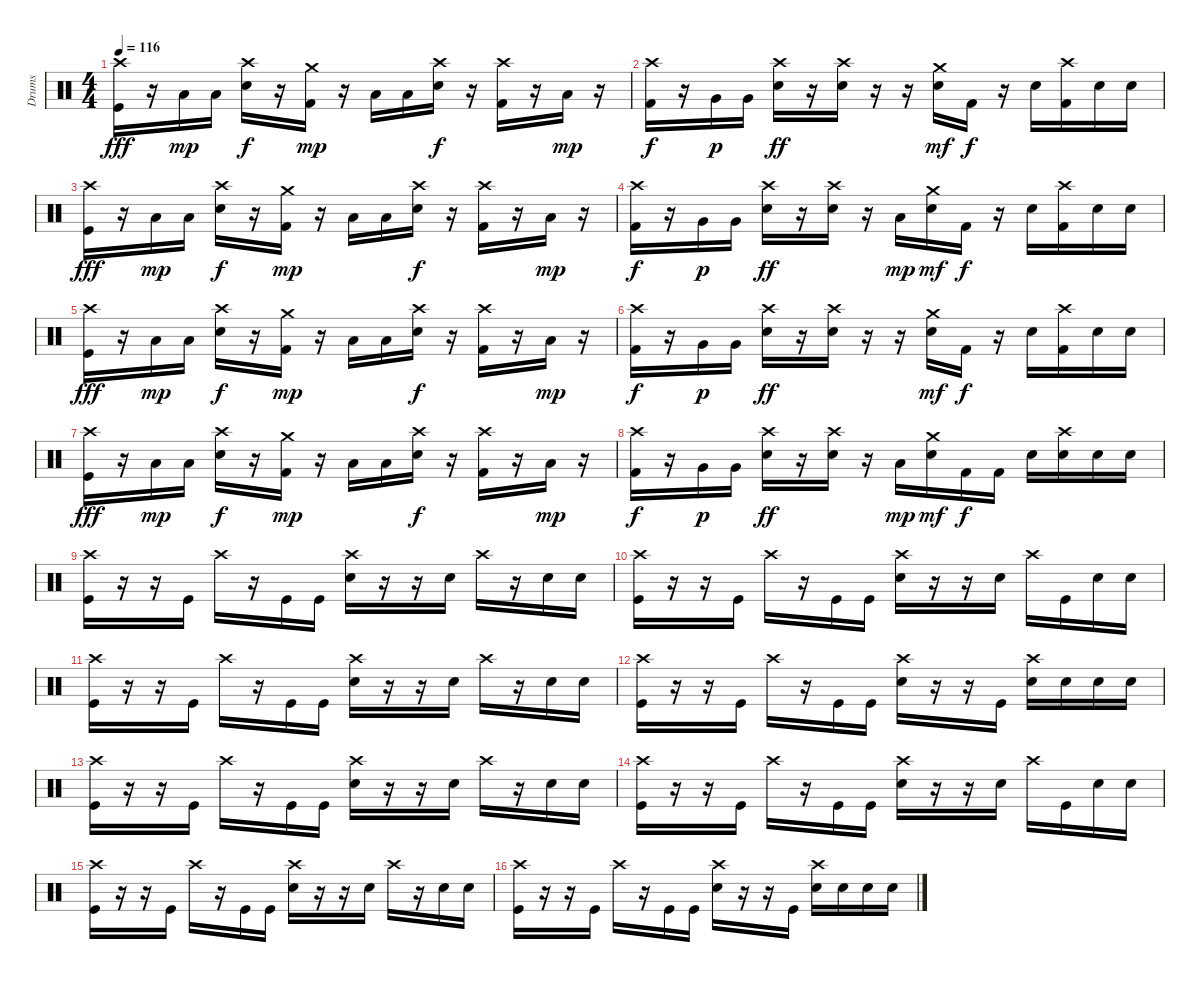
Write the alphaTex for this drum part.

\track ("Drums" "Drums") {instrument percussion}
\staff {score}
\articulation defaults
\ts (4 4)
\tempo 116
\clef neutral
\ks c
("Crash high (hit)" "Kick (hit)").16{dy fff} r.16 "Low Tom (hit)".16{dy mp} "Low Tom (hit)".16 ("Crash high (hit)" "Snare (hit) 2").16{dy f} r.16 ("Crash medium (hit)" "Kick (hit) 2").16{dy mp} r.16 "Low Tom (hit)".16 "Low Tom (hit)".16 ("Crash high (hit)" "Snare (hit) 2").16{dy f} r.16 ("Crash high (hit)" "Kick (hit) 2").16 r.16 "Low Tom (hit)".16{dy mp} r.16 |
("Crash high (hit)" "Kick (hit) 2").16{dy f} r.16 "Very Low Tom (hit)".16{dy p} "Very Low Tom (hit)".16 ("Crash high (hit)" "Snare (hit) 2").16{dy ff} r.16 ("Crash high (hit)" "Snare (hit) 2").16 r.16 r.16 ("Crash medium (hit)" "Snare (hit) 2").16{dy mf} "Kick (hit) 2".16{dy f} r.16 "Snare (hit) 2".16 ("Crash high (hit)" "Kick (hit) 2").16 "Snare (hit) 2".16 "Snare (hit) 2".16 |
("Crash high (hit)" "Kick (hit)").16{dy fff} r.16 "Low Tom (hit)".16{dy mp} "Low Tom (hit)".16 ("Crash high (hit)" "Snare (hit) 2").16{dy f} r.16 ("Crash medium (hit)" "Kick (hit) 2").16{dy mp} r.16 "Low Tom (hit)".16 "Low Tom (hit)".16 ("Crash high (hit)" "Snare (hit) 2").16{dy f} r.16 ("Crash high (hit)" "Kick (hit) 2").16 r.16 "Low Tom (hit)".16{dy mp} r.16 |
("Crash high (hit)" "Kick (hit) 2").16{dy f} r.16 "Very Low Tom (hit)".16{dy p} "Very Low Tom (hit)".16 ("Crash high (hit)" "Snare (hit) 2").16{dy ff} r.16 ("Crash high (hit)" "Snare (hit) 2").16 r.16 "Low Tom (hit)".16{dy mp} ("Crash medium (hit)" "Snare (hit) 2").16{dy mf} "Kick (hit) 2".16{dy f} r.16 "Snare (hit) 2".16 ("Crash high (hit)" "Kick (hit) 2").16 "Snare (hit) 2".16 "Snare (hit) 2".16 |
("Crash high (hit)" "Kick (hit)").16{dy fff} r.16 "Low Tom (hit)".16{dy mp} "Low Tom (hit)".16 ("Crash high (hit)" "Snare (hit) 2").16{dy f} r.16 ("Crash medium (hit)" "Kick (hit) 2").16{dy mp} r.16 "Low Tom (hit)".16 "Low Tom (hit)".16 ("Crash high (hit)" "Snare (hit) 2").16{dy f} r.16 ("Crash high (hit)" "Kick (hit) 2").16 r.16 "Low Tom (hit)".16{dy mp} r.16 |
("Crash high (hit)" "Kick (hit) 2").16{dy f} r.16 "Very Low Tom (hit)".16{dy p} "Very Low Tom (hit)".16 ("Crash high (hit)" "Snare (hit) 2").16{dy ff} r.16 ("Crash high (hit)" "Snare (hit) 2").16 r.16 r.16 ("Crash medium (hit)" "Snare (hit) 2").16{dy mf} "Kick (hit) 2".16{dy f} r.16 "Snare (hit) 2".16 ("Crash high (hit)" "Kick (hit) 2").16 "Snare (hit) 2".16 "Snare (hit) 2".16 |
("Crash high (hit)" "Kick (hit)").16{dy fff} r.16 "Low Tom (hit)".16{dy mp} "Low Tom (hit)".16 ("Crash high (hit)" "Snare (hit) 2").16{dy f} r.16 ("Crash medium (hit)" "Kick (hit) 2").16{dy mp} r.16 "Low Tom (hit)".16 "Low Tom (hit)".16 ("Crash high (hit)" "Snare (hit) 2").16{dy f} r.16 ("Crash high (hit)" "Kick (hit) 2").16 r.16 "Low Tom (hit)".16{dy mp} r.16 |
("Crash high (hit)" "Kick (hit) 2").16{dy f} r.16 "Very Low Tom (hit)".16{dy p} "Very Low Tom (hit)".16 ("Crash high (hit)" "Snare (hit) 2").16{dy ff} r.16 ("Crash high (hit)" "Snare (hit) 2").16 r.16 "Low Tom (hit)".16{dy mp} ("Crash medium (hit)" "Snare (hit) 2").16{dy mf} "Kick (hit) 2".16{dy f} "Kick (hit) 2".16 "Snare (hit) 2".16 ("Crash high (hit)" "Snare (hit) 2").16 "Snare (hit) 2".16 "Snare (hit) 2".16 |
("Crash high (hit)" "Kick (hit)").16 r.16 r.16 "Kick (hit)".16 "Crash high (hit)".16 r.16 "Kick (hit)".16 "Kick (hit)".16 ("Crash high (hit)" "Snare (hit) 2").16 r.16 r.16 "Snare (hit) 2".16 "Crash high (hit)".16 r.16 "Snare (hit) 2".16 "Snare (hit) 2".16 |
("Crash high (hit)" "Kick (hit)").16 r.16 r.16 "Kick (hit)".16 "Crash high (hit)".16 r.16 "Kick (hit)".16 "Kick (hit)".16 ("Crash high (hit)" "Snare (hit) 2").16 r.16 r.16 "Snare (hit) 2".16 "Crash high (hit)".16 "Kick (hit)".16 "Snare (hit) 2".16 "Snare (hit) 2".16 |
("Crash high (hit)" "Kick (hit)").16 r.16 r.16 "Kick (hit)".16 "Crash high (hit)".16 r.16 "Kick (hit)".16 "Kick (hit)".16 ("Crash high (hit)" "Snare (hit) 2").16 r.16 r.16 "Snare (hit) 2".16 "Crash high (hit)".16 r.16 "Snare (hit) 2".16 "Snare (hit) 2".16 |
("Crash high (hit)" "Kick (hit)").16 r.16 r.16 "Kick (hit)".16 "Crash high (hit)".16 r.16 "Kick (hit)".16 "Kick (hit)".16 ("Crash high (hit)" "Snare (hit) 2").16 r.16 r.16 "Kick (hit)".16 ("Crash high (hit)" "Snare (hit) 2").16 "Snare (hit) 2".16 "Snare (hit) 2".16 "Snare (hit) 2".16 |
("Crash high (hit)" "Kick (hit)").16 r.16 r.16 "Kick (hit)".16 "Crash high (hit)".16 r.16 "Kick (hit)".16 "Kick (hit)".16 ("Crash high (hit)" "Snare (hit) 2").16 r.16 r.16 "Snare (hit) 2".16 "Crash high (hit)".16 r.16 "Snare (hit) 2".16 "Snare (hit) 2".16 |
("Crash high (hit)" "Kick (hit)").16 r.16 r.16 "Kick (hit)".16 "Crash high (hit)".16 r.16 "Kick (hit)".16 "Kick (hit)".16 ("Crash high (hit)" "Snare (hit) 2").16 r.16 r.16 "Snare (hit) 2".16 "Crash high (hit)".16 "Kick (hit)".16 "Snare (hit) 2".16 "Snare (hit) 2".16 |
("Crash high (hit)" "Kick (hit)").16 r.16 r.16 "Kick (hit)".16 "Crash high (hit)".16 r.16 "Kick (hit)".16 "Kick (hit)".16 ("Crash high (hit)" "Snare (hit) 2").16 r.16 r.16 "Snare (hit) 2".16 "Crash high (hit)".16 r.16 "Snare (hit) 2".16 "Snare (hit) 2".16 |
("Crash high (hit)" "Kick (hit)").16 r.16 r.16 "Kick (hit)".16 "Crash high (hit)".16 r.16 "Kick (hit)".16 "Kick (hit)".16 ("Crash high (hit)" "Snare (hit) 2").16 r.16 r.16 "Kick (hit)".16 ("Crash high (hit)" "Snare (hit) 2").16 "Snare (hit) 2".16 "Snare (hit) 2".16 "Snare (hit) 2".16
